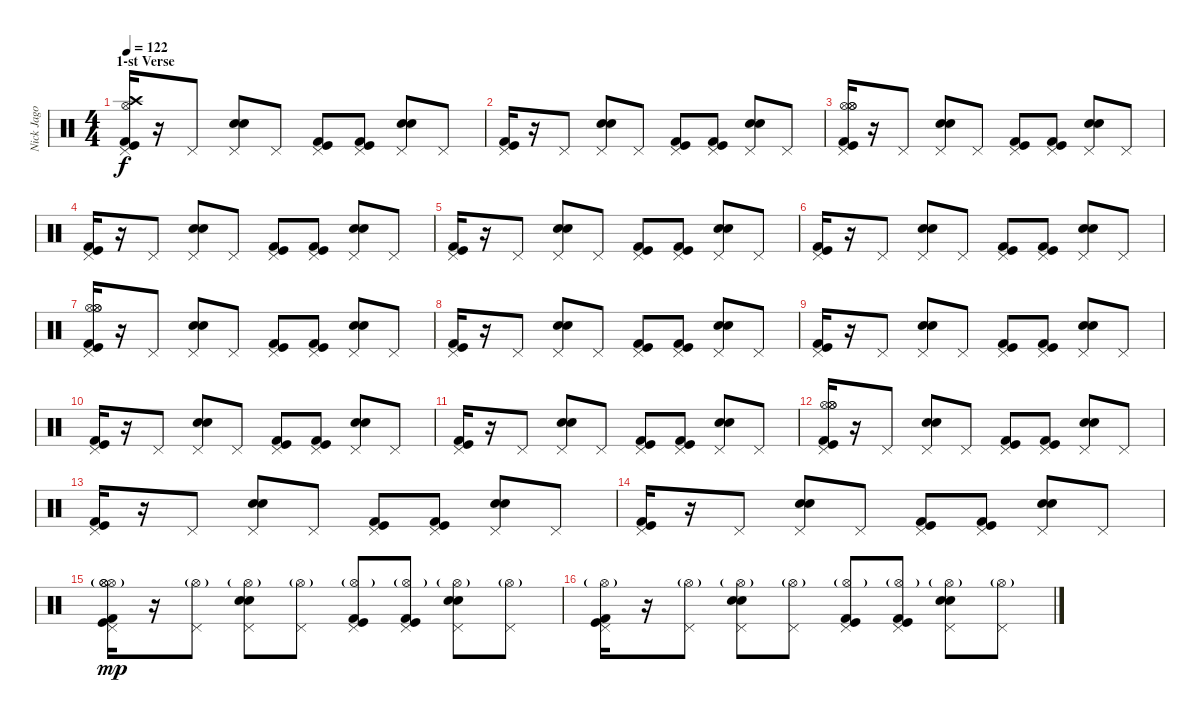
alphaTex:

\track ("Nick Jago - Drums" "Nick Jago ") {instrument percussion}
\staff {score}
\articulation defaults
\ts (4 4)
\section ("" "1-st Verse")
\tempo 122
\clef neutral
\ks c
("Pedal Hi-Hat (hit)" "Hi-Hat (open)" "Crash high (hit)" "Kick (hit)" "Kick (hit) 2").16{dy f} r.16 "Pedal Hi-Hat (hit)".8 ("Pedal Hi-Hat (hit)" "Snare (hit) 2" "Electric Snare (hit)").8 "Pedal Hi-Hat (hit)".8 ("Pedal Hi-Hat (hit)" "Kick (hit)" "Kick (hit) 2").8 ("Pedal Hi-Hat (hit)" "Kick (hit)" "Kick (hit) 2").8 ("Pedal Hi-Hat (hit)" "Snare (hit) 2" "Electric Snare (hit)").8 "Pedal Hi-Hat (hit)".8 |
("Pedal Hi-Hat (hit)" "Kick (hit)" "Kick (hit) 2").16 r.16 "Pedal Hi-Hat (hit)".8 ("Pedal Hi-Hat (hit)" "Snare (hit) 2" "Electric Snare (hit)").8 "Pedal Hi-Hat (hit)".8 ("Pedal Hi-Hat (hit)" "Kick (hit)" "Kick (hit) 2").8 ("Pedal Hi-Hat (hit)" "Kick (hit)" "Kick (hit) 2").8 ("Pedal Hi-Hat (hit)" "Snare (hit) 2" "Electric Snare (hit)").8 "Pedal Hi-Hat (hit)".8 |
("Pedal Hi-Hat (hit)" "Hi-Hat (open)" "Hi-Hat (open)" "Hi-Hat (open)" "Kick (hit)" "Kick (hit) 2").16 r.16 "Pedal Hi-Hat (hit)".8 ("Pedal Hi-Hat (hit)" "Snare (hit) 2" "Electric Snare (hit)").8 "Pedal Hi-Hat (hit)".8 ("Pedal Hi-Hat (hit)" "Kick (hit)" "Kick (hit) 2").8 ("Pedal Hi-Hat (hit)" "Kick (hit)" "Kick (hit) 2").8 ("Pedal Hi-Hat (hit)" "Snare (hit) 2" "Electric Snare (hit)").8 "Pedal Hi-Hat (hit)".8 |
("Pedal Hi-Hat (hit)" "Kick (hit)" "Kick (hit) 2").16 r.16 "Pedal Hi-Hat (hit)".8 ("Pedal Hi-Hat (hit)" "Snare (hit) 2" "Electric Snare (hit)").8 "Pedal Hi-Hat (hit)".8 ("Pedal Hi-Hat (hit)" "Kick (hit)" "Kick (hit) 2").8 ("Pedal Hi-Hat (hit)" "Kick (hit)" "Kick (hit) 2").8 ("Pedal Hi-Hat (hit)" "Snare (hit) 2" "Electric Snare (hit)").8 "Pedal Hi-Hat (hit)".8 |
("Pedal Hi-Hat (hit)" "Kick (hit)" "Kick (hit) 2").16 r.16 "Pedal Hi-Hat (hit)".8 ("Pedal Hi-Hat (hit)" "Snare (hit) 2" "Electric Snare (hit)").8 "Pedal Hi-Hat (hit)".8 ("Pedal Hi-Hat (hit)" "Kick (hit)" "Kick (hit) 2").8 ("Pedal Hi-Hat (hit)" "Kick (hit)" "Kick (hit) 2").8 ("Pedal Hi-Hat (hit)" "Snare (hit) 2" "Electric Snare (hit)").8 "Pedal Hi-Hat (hit)".8 |
("Pedal Hi-Hat (hit)" "Kick (hit)" "Kick (hit) 2").16 r.16 "Pedal Hi-Hat (hit)".8 ("Pedal Hi-Hat (hit)" "Snare (hit) 2" "Electric Snare (hit)").8 "Pedal Hi-Hat (hit)".8 ("Pedal Hi-Hat (hit)" "Kick (hit)" "Kick (hit) 2").8 ("Pedal Hi-Hat (hit)" "Kick (hit)" "Kick (hit) 2").8 ("Pedal Hi-Hat (hit)" "Snare (hit) 2" "Electric Snare (hit)").8 "Pedal Hi-Hat (hit)".8 |
("Pedal Hi-Hat (hit)" "Hi-Hat (open)" "Hi-Hat (open)" "Hi-Hat (open)" "Kick (hit)" "Kick (hit) 2").16 r.16 "Pedal Hi-Hat (hit)".8 ("Pedal Hi-Hat (hit)" "Snare (hit) 2" "Electric Snare (hit)").8 "Pedal Hi-Hat (hit)".8 ("Pedal Hi-Hat (hit)" "Kick (hit)" "Kick (hit) 2").8 ("Pedal Hi-Hat (hit)" "Kick (hit)" "Kick (hit) 2").8 ("Pedal Hi-Hat (hit)" "Snare (hit) 2" "Electric Snare (hit)").8 "Pedal Hi-Hat (hit)".8 |
("Pedal Hi-Hat (hit)" "Kick (hit)" "Kick (hit) 2").16 r.16 "Pedal Hi-Hat (hit)".8 ("Pedal Hi-Hat (hit)" "Snare (hit) 2" "Electric Snare (hit)").8 "Pedal Hi-Hat (hit)".8 ("Pedal Hi-Hat (hit)" "Kick (hit)" "Kick (hit) 2").8 ("Pedal Hi-Hat (hit)" "Kick (hit)" "Kick (hit) 2").8 ("Pedal Hi-Hat (hit)" "Snare (hit) 2" "Electric Snare (hit)").8 "Pedal Hi-Hat (hit)".8 |
("Pedal Hi-Hat (hit)" "Kick (hit)" "Kick (hit) 2").16 r.16 "Pedal Hi-Hat (hit)".8 ("Pedal Hi-Hat (hit)" "Snare (hit) 2" "Electric Snare (hit)").8 "Pedal Hi-Hat (hit)".8 ("Pedal Hi-Hat (hit)" "Kick (hit)" "Kick (hit) 2").8 ("Pedal Hi-Hat (hit)" "Kick (hit)" "Kick (hit) 2").8 ("Pedal Hi-Hat (hit)" "Snare (hit) 2" "Electric Snare (hit)").8 "Pedal Hi-Hat (hit)".8 |
("Pedal Hi-Hat (hit)" "Kick (hit)" "Kick (hit) 2").16 r.16 "Pedal Hi-Hat (hit)".8 ("Pedal Hi-Hat (hit)" "Snare (hit) 2" "Electric Snare (hit)").8 "Pedal Hi-Hat (hit)".8 ("Pedal Hi-Hat (hit)" "Kick (hit)" "Kick (hit) 2").8 ("Pedal Hi-Hat (hit)" "Kick (hit)" "Kick (hit) 2").8 ("Pedal Hi-Hat (hit)" "Snare (hit) 2" "Electric Snare (hit)").8 "Pedal Hi-Hat (hit)".8 |
("Pedal Hi-Hat (hit)" "Kick (hit)" "Kick (hit) 2").16 r.16 "Pedal Hi-Hat (hit)".8 ("Pedal Hi-Hat (hit)" "Snare (hit) 2" "Electric Snare (hit)").8 "Pedal Hi-Hat (hit)".8 ("Pedal Hi-Hat (hit)" "Kick (hit)" "Kick (hit) 2").8 ("Pedal Hi-Hat (hit)" "Kick (hit)" "Kick (hit) 2").8 ("Pedal Hi-Hat (hit)" "Snare (hit) 2" "Electric Snare (hit)").8 "Pedal Hi-Hat (hit)".8 |
("Pedal Hi-Hat (hit)" "Hi-Hat (open)" "Hi-Hat (open)" "Hi-Hat (open)" "Kick (hit)" "Kick (hit) 2").16 r.16 "Pedal Hi-Hat (hit)".8 ("Pedal Hi-Hat (hit)" "Snare (hit) 2" "Electric Snare (hit)").8 "Pedal Hi-Hat (hit)".8 ("Pedal Hi-Hat (hit)" "Kick (hit)" "Kick (hit) 2").8 ("Pedal Hi-Hat (hit)" "Kick (hit)" "Kick (hit) 2").8 ("Pedal Hi-Hat (hit)" "Snare (hit) 2" "Electric Snare (hit)").8 "Pedal Hi-Hat (hit)".8 |
("Pedal Hi-Hat (hit)" "Kick (hit)" "Kick (hit) 2").16 r.16 "Pedal Hi-Hat (hit)".8 ("Pedal Hi-Hat (hit)" "Snare (hit) 2" "Electric Snare (hit)").8 "Pedal Hi-Hat (hit)".8 ("Pedal Hi-Hat (hit)" "Kick (hit)" "Kick (hit) 2").8 ("Pedal Hi-Hat (hit)" "Kick (hit)" "Kick (hit) 2").8 ("Pedal Hi-Hat (hit)" "Snare (hit) 2" "Electric Snare (hit)").8 "Pedal Hi-Hat (hit)".8 |
("Pedal Hi-Hat (hit)" "Kick (hit)" "Kick (hit) 2").16 r.16 "Pedal Hi-Hat (hit)".8 ("Pedal Hi-Hat (hit)" "Snare (hit) 2" "Electric Snare (hit)").8 "Pedal Hi-Hat (hit)".8 ("Pedal Hi-Hat (hit)" "Kick (hit)" "Kick (hit) 2").8 ("Pedal Hi-Hat (hit)" "Kick (hit)" "Kick (hit) 2").8 ("Pedal Hi-Hat (hit)" "Snare (hit) 2" "Electric Snare (hit)").8 "Pedal Hi-Hat (hit)".8 |
("Pedal Hi-Hat (hit)" "Hi-Hat (open)"{g} "Hi-Hat (open)" "Hi-Hat (open)" "Kick (hit)" "Kick (hit) 2").16{dy mp} r.16 ("Pedal Hi-Hat (hit)" "Hi-Hat (open)"{g}).8 ("Pedal Hi-Hat (hit)" "Hi-Hat (open)"{g} "Snare (hit) 2" "Electric Snare (hit)").8 ("Pedal Hi-Hat (hit)" "Hi-Hat (open)"{g}).8 ("Pedal Hi-Hat (hit)" "Hi-Hat (open)"{g} "Kick (hit)" "Kick (hit) 2").8 ("Pedal Hi-Hat (hit)" "Hi-Hat (open)"{g} "Kick (hit)" "Kick (hit) 2").8 ("Pedal Hi-Hat (hit)" "Hi-Hat (open)"{g} "Snare (hit) 2" "Electric Snare (hit)").8 ("Pedal Hi-Hat (hit)" "Hi-Hat (open)"{g}).8 |
("Pedal Hi-Hat (hit)" "Hi-Hat (open)"{g} "Kick (hit)" "Kick (hit) 2").16 r.16 ("Pedal Hi-Hat (hit)" "Hi-Hat (open)"{g}).8 ("Pedal Hi-Hat (hit)" "Hi-Hat (open)"{g} "Snare (hit) 2" "Electric Snare (hit)").8 ("Pedal Hi-Hat (hit)" "Hi-Hat (open)"{g}).8 ("Pedal Hi-Hat (hit)" "Hi-Hat (open)"{g} "Kick (hit)" "Kick (hit) 2").8 ("Pedal Hi-Hat (hit)" "Hi-Hat (open)"{g} "Kick (hit)" "Kick (hit) 2").8 ("Pedal Hi-Hat (hit)" "Hi-Hat (open)"{g} "Snare (hit) 2" "Electric Snare (hit)").8 ("Pedal Hi-Hat (hit)" "Hi-Hat (open)"{g}).8
